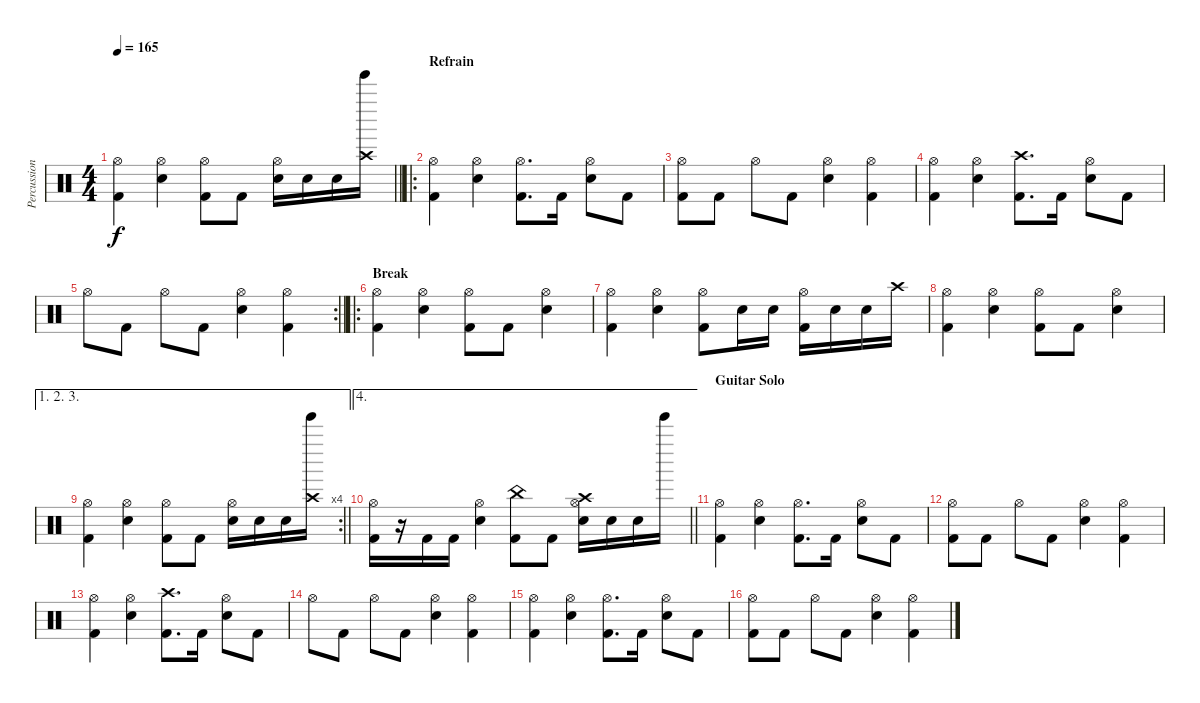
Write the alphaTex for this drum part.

\track ("Percussions" "Percussion") {instrument percussion}
\staff {score}
\articulation defaults
\ts (4 4)
\tempo 165
\clef neutral
\barLineRight lightlight
\ks c
("Hi-Hat (open)" "Kick (hit) 2").4{dy f} ("Hi-Hat (open)" "Snare (hit) 2").4 ("Hi-Hat (open)" "Kick (hit) 2").8 "Kick (hit) 2".8 ("Hi-Hat (open)" "Snare (hit) 2").16 "Snare (hit) 2".16 "Snare (hit) 2".16 ("Crash high (hit)" "Tinkle Bell (hit)").16 |
\ro
\section ("" "Refrain")
("Hi-Hat (open)" "Kick (hit) 2").4 ("Hi-Hat (open)" "Snare (hit) 2").4 ("Hi-Hat (open)" "Kick (hit) 2").8{d} "Kick (hit) 2".16 ("Hi-Hat (open)" "Snare (hit) 2").8 "Kick (hit) 2".8 |
("Hi-Hat (open)" "Kick (hit) 2").8 "Kick (hit) 2".8 "Hi-Hat (open)".8 "Kick (hit) 2".8 ("Hi-Hat (open)" "Snare (hit) 2").4 ("Hi-Hat (open)" "Kick (hit) 2").4 |
("Hi-Hat (open)" "Kick (hit) 2").4 ("Hi-Hat (open)" "Snare (hit) 2").4 ("Crash high (hit)" "Kick (hit) 2").8{d} "Kick (hit) 2".16 ("Hi-Hat (open)" "Snare (hit) 2").8 "Kick (hit) 2".8 |
\rc 2
\barLineRight lightlight "Hi-Hat (open)".8 "Kick (hit) 2".8 "Hi-Hat (open)".8 "Kick (hit) 2".8
("Hi-Hat (open)" "Snare (hit) 2").4 ("Hi-Hat (open)" "Kick (hit) 2").4 |
\ro
\section ("" "Break")
("Hi-Hat (open)" "Kick (hit) 2").4 ("Hi-Hat (open)" "Snare (hit) 2").4 ("Hi-Hat (open)" "Kick (hit) 2").8 "Kick (hit) 2".8 ("Hi-Hat (open)" "Snare (hit) 2").4 |
("Hi-Hat (open)" "Kick (hit) 2").4 ("Hi-Hat (open)" "Snare (hit) 2").4 ("Hi-Hat (open)" "Kick (hit) 2").8 "Snare (hit) 2".16 "Snare (hit) 2".16 ("Hi-Hat (open)" "Kick (hit) 2").16 "Snare (hit) 2".16 "Snare (hit) 2".16 "Crash high (hit)".16 |
("Hi-Hat (open)" "Kick (hit) 2").4 ("Hi-Hat (open)" "Snare (hit) 2").4 ("Hi-Hat (open)" "Kick (hit) 2").8 "Kick (hit) 2".8 ("Hi-Hat (open)" "Snare (hit) 2").4 |
\ae (1 2 3)
\rc 4
\barLineRight lightlight
("Hi-Hat (open)" "Kick (hit) 2").4 ("Hi-Hat (open)" "Snare (hit) 2").4 ("Hi-Hat (open)" "Kick (hit) 2").8 "Kick (hit) 2".8 ("Hi-Hat (open)" "Snare (hit) 2").16 "Snare (hit) 2".16 "Snare (hit) 2".16 ("Crash high (hit)" "Tinkle Bell (hit)").16 |
\ae 4
\barLineRight lightlight
("Hi-Hat (open)" "Kick (hit) 2").16 r.16 "Kick (hit) 2".16 "Kick (hit) 2".16 ("Hi-Hat (open)" "Snare (hit) 2").4 ("China (hit)" "Kick (hit) 2").8 "Kick (hit) 2".8 ("Crash high (hit)" "Hi-Hat (open)" "Snare (hit) 2").16 "Snare (hit) 2".16 "Snare (hit) 2".16 "Tinkle Bell (hit)".16 |
\section ("" "Guitar Solo")
("Hi-Hat (open)" "Kick (hit) 2").4 ("Hi-Hat (open)" "Snare (hit) 2").4 ("Hi-Hat (open)" "Kick (hit) 2").8{d} "Kick (hit) 2".16 ("Hi-Hat (open)" "Snare (hit) 2").8 "Kick (hit) 2".8 |
("Hi-Hat (open)" "Kick (hit) 2").8 "Kick (hit) 2".8 "Hi-Hat (open)".8 "Kick (hit) 2".8 ("Hi-Hat (open)" "Snare (hit) 2").4 ("Hi-Hat (open)" "Kick (hit) 2").4 |
("Hi-Hat (open)" "Kick (hit) 2").4 ("Hi-Hat (open)" "Snare (hit) 2").4 ("Crash high (hit)" "Kick (hit) 2").8{d} "Kick (hit) 2".16 ("Hi-Hat (open)" "Snare (hit) 2").8 "Kick (hit) 2".8 |
"Hi-Hat (open)".8 "Kick (hit) 2".8 "Hi-Hat (open)".8 "Kick (hit) 2".8 ("Hi-Hat (open)" "Snare (hit) 2").4 ("Hi-Hat (open)" "Kick (hit) 2").4 |
("Hi-Hat (open)" "Kick (hit) 2").4 ("Hi-Hat (open)" "Snare (hit) 2").4 ("Hi-Hat (open)" "Kick (hit) 2").8{d} "Kick (hit) 2".16 ("Hi-Hat (open)" "Snare (hit) 2").8 "Kick (hit) 2".8 |
("Hi-Hat (open)" "Kick (hit) 2").8 "Kick (hit) 2".8 "Hi-Hat (open)".8 "Kick (hit) 2".8 ("Hi-Hat (open)" "Snare (hit) 2").4 ("Hi-Hat (open)" "Kick (hit) 2").4
